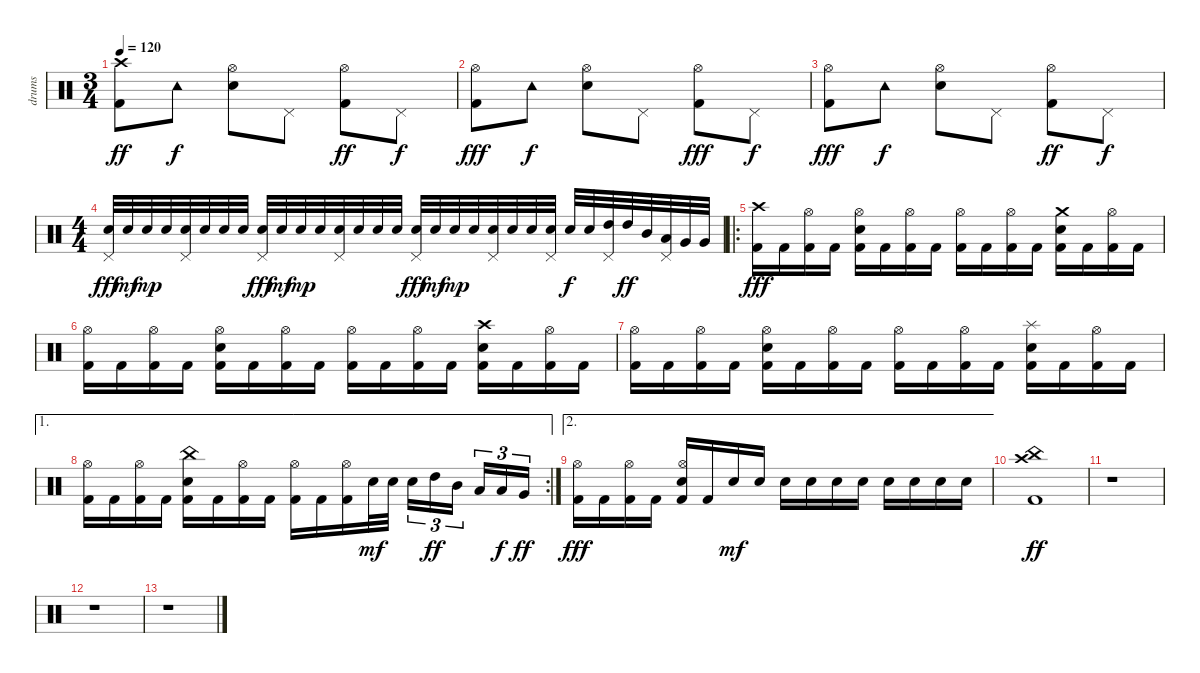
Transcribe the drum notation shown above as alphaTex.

\track ("drums" "drums") {instrument percussion}
\staff {score}
\articulation defaults
\ts (3 4)
\tempo 120
\clef neutral
\ks c
("Crash high (hit)" "Kick (hit) 2").8{dy ff} "Tambourine (hit)".8{dy f} ("Hi-Hat (open)" "Electric Snare (hit)").8 "Pedal Hi-Hat (hit)".8 ("Hi-Hat (open)" "Kick (hit) 2").8{dy ff} "Pedal Hi-Hat (hit)".8{dy f} |
("Hi-Hat (open)" "Kick (hit) 2").8{dy fff} "Tambourine (hit)".8{dy f} ("Hi-Hat (open)" "Electric Snare (hit)").8 "Pedal Hi-Hat (hit)".8 ("Hi-Hat (open)" "Kick (hit) 2").8{dy fff} "Pedal Hi-Hat (hit)".8{dy f} |
("Hi-Hat (open)" "Kick (hit) 2").8{dy fff} "Tambourine (hit)".8{dy f} ("Hi-Hat (open)" "Electric Snare (hit)").8 "Pedal Hi-Hat (hit)".8 ("Hi-Hat (open)" "Kick (hit) 2").8{dy ff} "Pedal Hi-Hat (hit)".8{dy f} |
\ts (4 4)
("Pedal Hi-Hat (hit)" "Electric Snare (hit)").32{dy fff} "Electric Snare (hit)".32{dy mf} "Electric Snare (hit)".32{dy mp} "Electric Snare (hit)".32 ("Pedal Hi-Hat (hit)" "Electric Snare (hit)").32 "Electric Snare (hit)".32 "Electric Snare (hit)".32 "Electric Snare (hit)".32 ("Pedal Hi-Hat (hit)" "Electric Snare (hit)").32{dy fff} "Electric Snare (hit)".32{dy mf} "Electric Snare (hit)".32{dy mp} "Electric Snare (hit)".32 ("Pedal Hi-Hat (hit)" "Electric Snare (hit)").32 "Electric Snare (hit)".32 "Electric Snare (hit)".32 "Electric Snare (hit)".32 ("Pedal Hi-Hat (hit)" "Electric Snare (hit)").32{dy fff} "Electric Snare (hit)".32{dy mf} "Electric Snare (hit)".32{dy mp} "Electric Snare (hit)".32 ("Pedal Hi-Hat (hit)" "Electric Snare (hit)").32 "Electric Snare (hit)".32 "Electric Snare (hit)".32 ("Pedal Hi-Hat (hit)" "Electric Snare (hit)").32 "Electric Snare (hit)".32{dy f} "Electric Snare (hit)".32 ("Pedal Hi-Hat (hit)" "High Tom (hit)").32 "High Tom (hit)".32{dy ff} "Mid Tom (hit)".32 ("Pedal Hi-Hat (hit)" "Low Tom (hit)").32 "Very Low Tom (hit)".32 "Very Low Tom (hit)".32 |
\ro
("Crash high (hit)" "Kick (hit) 2").16{dy fff} "Kick (hit) 2".16 ("Hi-Hat (open)" "Kick (hit) 2").16 "Kick (hit) 2".16 ("Hi-Hat (open)" "Electric Snare (hit)" "Kick (hit) 2").16 "Kick (hit) 2".16 ("Hi-Hat (open)" "Kick (hit) 2").16 "Kick (hit) 2".16 ("Hi-Hat (open)" "Kick (hit) 2").16 "Kick (hit) 2".16 ("Hi-Hat (open)" "Kick (hit) 2").16 "Kick (hit) 2".16 ("Crash medium (hit)" "Electric Snare (hit)" "Kick (hit) 2").16 "Kick (hit) 2".16 ("Hi-Hat (open)" "Kick (hit) 2").16 "Kick (hit) 2".16 |
("Hi-Hat (open)" "Kick (hit) 2").16 "Kick (hit) 2".16 ("Hi-Hat (open)" "Kick (hit) 2").16 "Kick (hit) 2".16 ("Hi-Hat (open)" "Electric Snare (hit)" "Kick (hit) 2").16 "Kick (hit) 2".16 ("Hi-Hat (open)" "Kick (hit) 2").16 "Kick (hit) 2".16 ("Hi-Hat (open)" "Kick (hit) 2").16 "Kick (hit) 2".16 ("Hi-Hat (open)" "Kick (hit) 2").16 "Kick (hit) 2".16 ("Crash high (hit)" "Electric Snare (hit)" "Kick (hit) 2").16 "Kick (hit) 2".16 ("Hi-Hat (open)" "Kick (hit) 2").16 "Kick (hit) 2".16 |
("Hi-Hat (open)" "Kick (hit) 2").16 "Kick (hit) 2".16 ("Hi-Hat (open)" "Kick (hit) 2").16 "Kick (hit) 2".16 ("Hi-Hat (open)" "Electric Snare (hit)" "Kick (hit) 2").16 "Kick (hit) 2".16 ("Hi-Hat (open)" "Kick (hit) 2").16 "Kick (hit) 2".16 ("Hi-Hat (open)" "Kick (hit) 2").16 "Kick (hit) 2".16 ("Hi-Hat (open)" "Kick (hit) 2").16 "Kick (hit) 2".16 ("Splash (hit)" "Electric Snare (hit)" "Kick (hit) 2").16 "Kick (hit) 2".16 ("Hi-Hat (open)" "Kick (hit) 2").16 "Kick (hit) 2".16 |
\ae 1
\rc 2
("Hi-Hat (open)" "Kick (hit) 2").16 "Kick (hit) 2".16 ("Hi-Hat (open)" "Kick (hit) 2").16 "Kick (hit) 2".16 ("China (hit)" "Electric Snare (hit)" "Kick (hit) 2").16 "Kick (hit) 2".16 ("Hi-Hat (open)" "Kick (hit) 2").16 "Kick (hit) 2".16 ("Hi-Hat (open)" "Kick (hit) 2").16 "Kick (hit) 2".16 ("Hi-Hat (open)" "Kick (hit) 2").16 "Electric Snare (hit)".32{dy mf} "Electric Snare (hit)".32 "Electric Snare (hit)".16{tu (3 2)} "High Tom (hit)".16{tu (3 2) dy ff} "Mid Tom (hit)".16{tu (3 2)} "Low Tom (hit)".16{tu (3 2)} "Low Tom (hit)".16{tu (3 2) dy f} "Very Low Tom (hit)".16{tu (3 2) dy ff} |
\ae 2
("Hi-Hat (open)" "Kick (hit) 2").16{dy fff} "Kick (hit) 2".16 ("Hi-Hat (open)" "Kick (hit) 2").16 "Kick (hit) 2".16 ("Hi-Hat (open)" "Electric Snare (hit)" "Kick (hit) 2").16 "Kick (hit) 2".16 "Electric Snare (hit)".16{dy mf} "Electric Snare (hit)".16 "Electric Snare (hit)".16 "Electric Snare (hit)".16 "Electric Snare (hit)".16 "Electric Snare (hit)".16 "Electric Snare (hit)".16 "Electric Snare (hit)".16 "Electric Snare (hit)".16 "Electric Snare (hit)".16 |
("China (hit)" "Crash high (hit)" "Kick (hit) 2").1{dy ff} |
r.1 |
r.1 |
r.1
